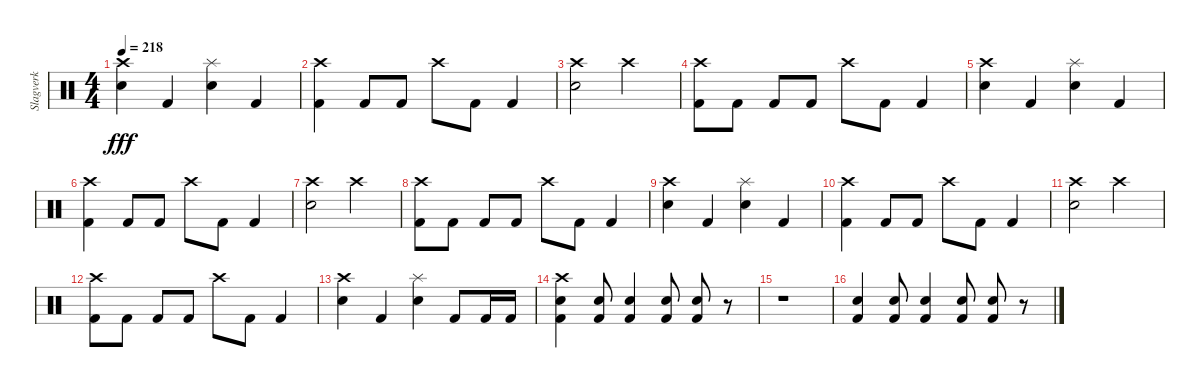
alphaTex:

\track ("Slagverk" "Slagverk") {instrument percussion}
\staff {score}
\articulation defaults
\ts (4 4)
\tempo 218
\clef neutral
\ks c
("Crash high (hit)" "Electric Snare (hit)").4{dy fff} "Kick (hit) 2".4 ("Splash (hit)" "Electric Snare (hit)").4 "Kick (hit) 2".4 |
("Crash high (hit)" "Kick (hit) 2").4 "Kick (hit) 2".8 "Kick (hit) 2".8 "Crash high (hit)".8 "Kick (hit) 2".8 "Kick (hit) 2".4 |
("Crash high (hit)" "Electric Snare (hit)").2 "Crash high (hit)".2 |
("Crash high (hit)" "Kick (hit) 2").8 "Kick (hit) 2".8 "Kick (hit) 2".8 "Kick (hit) 2".8 "Crash high (hit)".8 "Kick (hit) 2".8 "Kick (hit) 2".4 |
("Crash high (hit)" "Electric Snare (hit)").4 "Kick (hit) 2".4 ("Splash (hit)" "Electric Snare (hit)").4 "Kick (hit) 2".4 |
("Crash high (hit)" "Kick (hit) 2").4 "Kick (hit) 2".8 "Kick (hit) 2".8 "Crash high (hit)".8 "Kick (hit) 2".8 "Kick (hit) 2".4 |
("Crash high (hit)" "Electric Snare (hit)").2 "Crash high (hit)".2 |
("Crash high (hit)" "Kick (hit) 2").8 "Kick (hit) 2".8 "Kick (hit) 2".8 "Kick (hit) 2".8 "Crash high (hit)".8 "Kick (hit) 2".8 "Kick (hit) 2".4 |
("Crash high (hit)" "Electric Snare (hit)").4 "Kick (hit) 2".4 ("Splash (hit)" "Electric Snare (hit)").4 "Kick (hit) 2".4 |
("Crash high (hit)" "Kick (hit) 2").4 "Kick (hit) 2".8 "Kick (hit) 2".8 "Crash high (hit)".8 "Kick (hit) 2".8 "Kick (hit) 2".4 |
("Crash high (hit)" "Electric Snare (hit)").2 "Crash high (hit)".2 |
("Crash high (hit)" "Kick (hit) 2").8 "Kick (hit) 2".8 "Kick (hit) 2".8 "Kick (hit) 2".8 "Crash high (hit)".8 "Kick (hit) 2".8 "Kick (hit) 2".4 |
("Crash high (hit)" "Electric Snare (hit)").4 "Kick (hit) 2".4 ("Splash (hit)" "Electric Snare (hit)").4 "Kick (hit) 2".8 "Kick (hit) 2".16 "Kick (hit) 2".16 |
("Crash high (hit)" "Electric Snare (hit)" "Kick (hit) 2").4 ("Electric Snare (hit)" "Kick (hit) 2").8 ("Electric Snare (hit)" "Kick (hit) 2").4 ("Electric Snare (hit)" "Kick (hit) 2").8 ("Electric Snare (hit)" "Kick (hit) 2").8 r.8 |
r.1 |
("Electric Snare (hit)" "Kick (hit) 2").4 ("Electric Snare (hit)" "Kick (hit) 2").8 ("Electric Snare (hit)" "Kick (hit) 2").4 ("Electric Snare (hit)" "Kick (hit) 2").8 ("Electric Snare (hit)" "Kick (hit) 2").8 r.8
